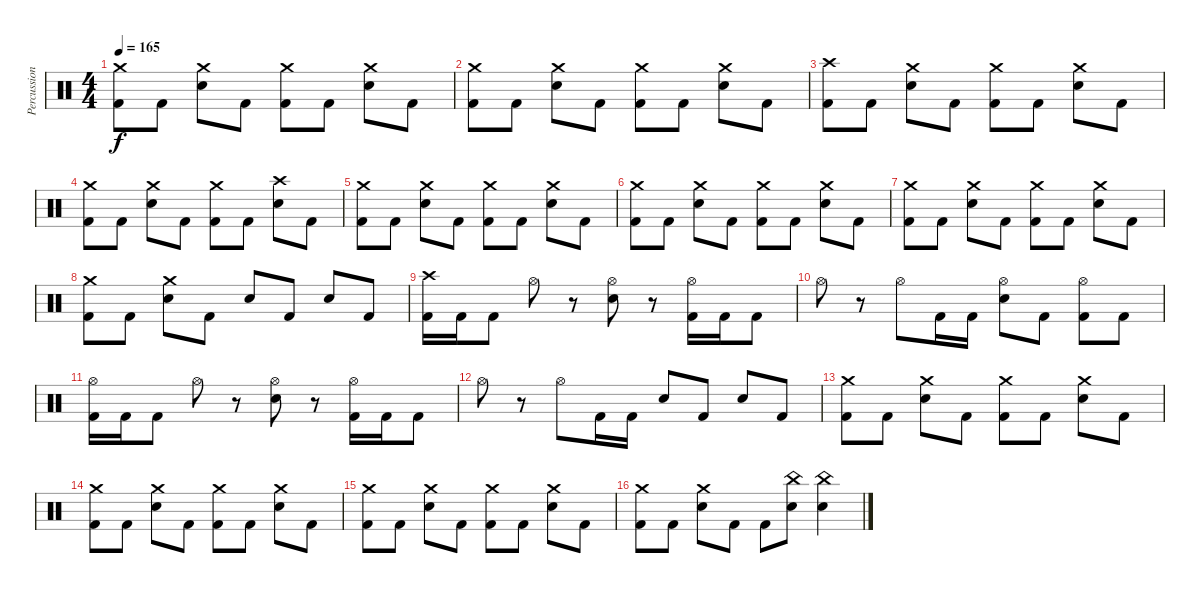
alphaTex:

\track ("Percussion" "Percussion") {instrument percussion}
\staff {score}
\articulation defaults
\ts (4 4)
\tempo 165
\clef neutral
\ks c
("Crash medium (hit)" "Kick (hit) 2").8{dy f} "Kick (hit) 2".8 ("Crash medium (hit)" "Snare (hit) 2").8 "Kick (hit) 2".8 ("Crash medium (hit)" "Kick (hit) 2").8 "Kick (hit) 2".8 ("Crash medium (hit)" "Snare (hit) 2").8 "Kick (hit) 2".8 |
("Crash medium (hit)" "Kick (hit) 2").8 "Kick (hit) 2".8 ("Crash medium (hit)" "Snare (hit) 2").8 "Kick (hit) 2".8 ("Crash medium (hit)" "Kick (hit) 2").8 "Kick (hit) 2".8 ("Crash medium (hit)" "Snare (hit) 2").8 "Kick (hit) 2".8 |
("Crash high (hit)" "Kick (hit) 2").8 "Kick (hit) 2".8 ("Crash medium (hit)" "Snare (hit) 2").8 "Kick (hit) 2".8 ("Crash medium (hit)" "Kick (hit) 2").8 "Kick (hit) 2".8 ("Crash medium (hit)" "Snare (hit) 2").8 "Kick (hit) 2".8 |
("Crash medium (hit)" "Kick (hit) 2").8 "Kick (hit) 2".8 ("Crash medium (hit)" "Snare (hit) 2").8 "Kick (hit) 2".8 ("Crash medium (hit)" "Kick (hit) 2").8 "Kick (hit) 2".8 ("Crash high (hit)" "Snare (hit) 2").8 "Kick (hit) 2".8 |
("Crash medium (hit)" "Kick (hit) 2").8 "Kick (hit) 2".8 ("Crash medium (hit)" "Snare (hit) 2").8 "Kick (hit) 2".8 ("Crash medium (hit)" "Kick (hit) 2").8 "Kick (hit) 2".8 ("Crash medium (hit)" "Snare (hit) 2").8 "Kick (hit) 2".8 |
("Crash medium (hit)" "Kick (hit) 2").8 "Kick (hit) 2".8 ("Crash medium (hit)" "Snare (hit) 2").8 "Kick (hit) 2".8 ("Crash medium (hit)" "Kick (hit) 2").8 "Kick (hit) 2".8 ("Crash medium (hit)" "Snare (hit) 2").8 "Kick (hit) 2".8 |
("Crash medium (hit)" "Kick (hit) 2").8 "Kick (hit) 2".8 ("Crash medium (hit)" "Snare (hit) 2").8 "Kick (hit) 2".8 ("Crash medium (hit)" "Kick (hit) 2").8 "Kick (hit) 2".8 ("Crash medium (hit)" "Snare (hit) 2").8 "Kick (hit) 2".8 |
("Crash medium (hit)" "Kick (hit) 2").8 "Kick (hit) 2".8 ("Crash medium (hit)" "Snare (hit) 2").8 "Kick (hit) 2".8 "Snare (hit) 2".8 "Kick (hit) 2".8 "Snare (hit) 2".8 "Kick (hit) 2".8 |
("Crash high (hit)" "Kick (hit) 2").16 "Kick (hit) 2".16 "Kick (hit) 2".8 "Hi-Hat (open)".8 r.8 ("Hi-Hat (open)" "Snare (hit) 2").8 r.8 ("Hi-Hat (open)" "Kick (hit) 2").16 "Kick (hit) 2".16 "Kick (hit) 2".8 |
"Hi-Hat (open)".8 r.8 "Hi-Hat (open)".8 "Kick (hit) 2".16 "Kick (hit) 2".16 ("Hi-Hat (open)" "Snare (hit) 2").8 "Kick (hit) 2".8 ("Hi-Hat (open)" "Kick (hit) 2").8 "Kick (hit) 2".8 |
("Hi-Hat (open)" "Kick (hit) 2").16 "Kick (hit) 2".16 "Kick (hit) 2".8 "Hi-Hat (open)".8 r.8 ("Hi-Hat (open)" "Snare (hit) 2").8 r.8 ("Hi-Hat (open)" "Kick (hit) 2").16 "Kick (hit) 2".16 "Kick (hit) 2".8 |
"Hi-Hat (open)".8 r.8 "Hi-Hat (open)".8 "Kick (hit) 2".16 "Kick (hit) 2".16 "Snare (hit) 2".8 "Kick (hit) 2".8 "Snare (hit) 2".8 "Kick (hit) 2".8 |
("Crash medium (hit)" "Kick (hit) 2").8 "Kick (hit) 2".8 ("Crash medium (hit)" "Snare (hit) 2").8 "Kick (hit) 2".8 ("Crash medium (hit)" "Kick (hit) 2").8 "Kick (hit) 2".8 ("Crash medium (hit)" "Snare (hit) 2").8 "Kick (hit) 2".8 |
("Crash medium (hit)" "Kick (hit) 2").8 "Kick (hit) 2".8 ("Crash medium (hit)" "Snare (hit) 2").8 "Kick (hit) 2".8 ("Crash medium (hit)" "Kick (hit) 2").8 "Kick (hit) 2".8 ("Crash medium (hit)" "Snare (hit) 2").8 "Kick (hit) 2".8 |
("Crash medium (hit)" "Kick (hit) 2").8 "Kick (hit) 2".8 ("Crash medium (hit)" "Snare (hit) 2").8 "Kick (hit) 2".8 ("Crash medium (hit)" "Kick (hit) 2").8 "Kick (hit) 2".8 ("Crash medium (hit)" "Snare (hit) 2").8 "Kick (hit) 2".8 |
("Crash medium (hit)" "Kick (hit) 2").8 "Kick (hit) 2".8 ("Crash medium (hit)" "Snare (hit) 2").8 "Kick (hit) 2".8 "Kick (hit) 2".8 ("China (hit)" "Snare (hit) 2").8 ("China (hit)" "Snare (hit) 2").4
